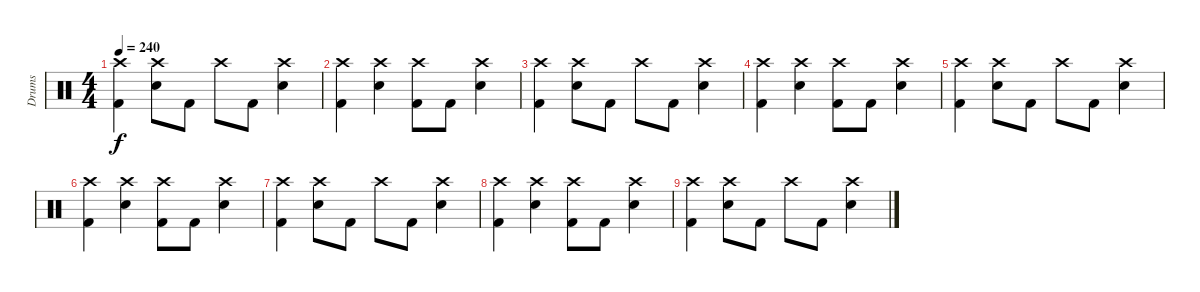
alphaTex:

\track ("Drums" "Drums") {instrument percussion}
\staff {score}
\articulation defaults
\ts (4 4)
\tempo 240
\clef neutral
\ks c
("Crash high (hit)" "Kick (hit) 2").4{dy f} ("Crash high (hit)" "Snare (hit) 2").8 "Kick (hit) 2".8 "Crash high (hit)".8 "Kick (hit) 2".8 ("Crash high (hit)" "Snare (hit) 2").4 |
("Crash high (hit)" "Kick (hit) 2").4 ("Crash high (hit)" "Snare (hit) 2").4 ("Crash high (hit)" "Kick (hit) 2").8 "Kick (hit) 2".8 ("Crash high (hit)" "Snare (hit) 2").4 |
("Crash high (hit)" "Kick (hit) 2").4 ("Crash high (hit)" "Snare (hit) 2").8 "Kick (hit) 2".8 "Crash high (hit)".8 "Kick (hit) 2".8 ("Crash high (hit)" "Snare (hit) 2").4 |
("Crash high (hit)" "Kick (hit) 2").4 ("Crash high (hit)" "Snare (hit) 2").4 ("Crash high (hit)" "Kick (hit) 2").8 "Kick (hit) 2".8 ("Crash high (hit)" "Snare (hit) 2").4 |
("Crash high (hit)" "Kick (hit) 2").4 ("Crash high (hit)" "Snare (hit) 2").8 "Kick (hit) 2".8 "Crash high (hit)".8 "Kick (hit) 2".8 ("Crash high (hit)" "Snare (hit) 2").4 |
("Crash high (hit)" "Kick (hit) 2").4 ("Crash high (hit)" "Snare (hit) 2").4 ("Crash high (hit)" "Kick (hit) 2").8 "Kick (hit) 2".8 ("Crash high (hit)" "Snare (hit) 2").4 |
("Crash high (hit)" "Kick (hit) 2").4 ("Crash high (hit)" "Snare (hit) 2").8 "Kick (hit) 2".8 "Crash high (hit)".8 "Kick (hit) 2".8 ("Crash high (hit)" "Snare (hit) 2").4 |
("Crash high (hit)" "Kick (hit) 2").4 ("Crash high (hit)" "Snare (hit) 2").4 ("Crash high (hit)" "Kick (hit) 2").8 "Kick (hit) 2".8 ("Crash high (hit)" "Snare (hit) 2").4 |
("Crash high (hit)" "Kick (hit) 2").4 ("Crash high (hit)" "Snare (hit) 2").8 "Kick (hit) 2".8 "Crash high (hit)".8 "Kick (hit) 2".8 ("Crash high (hit)" "Snare (hit) 2").4
